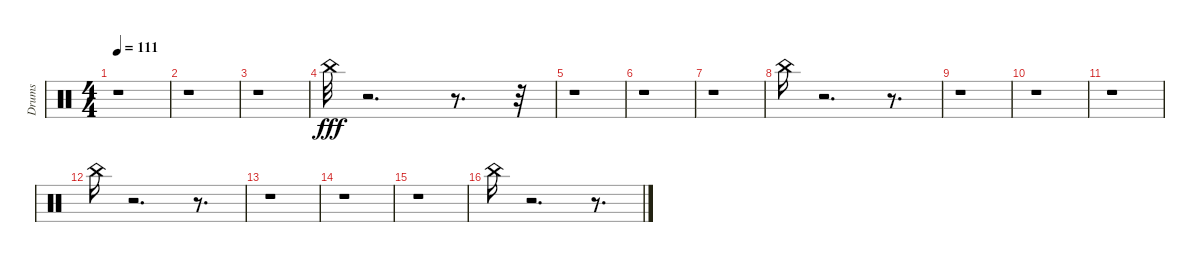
\track ("Drums" "Drums") {instrument percussion}
\staff {score}
\articulation defaults
\ts (4 4)
\tempo 111
\clef neutral
\ks c
r.1{dy fff} |
r.1 |
r.1 |
"China (hit)".32 r.2{d} r.8{d} r.32 |
r.1 |
r.1 |
r.1 |
"China (hit)".16 r.2{d} r.8{d} |
r.1 |
r.1 |
r.1 |
"China (hit)".16 r.2{d} r.8{d} |
r.1 |
r.1 |
r.1 |
"China (hit)".16 r.2{d} r.8{d}
